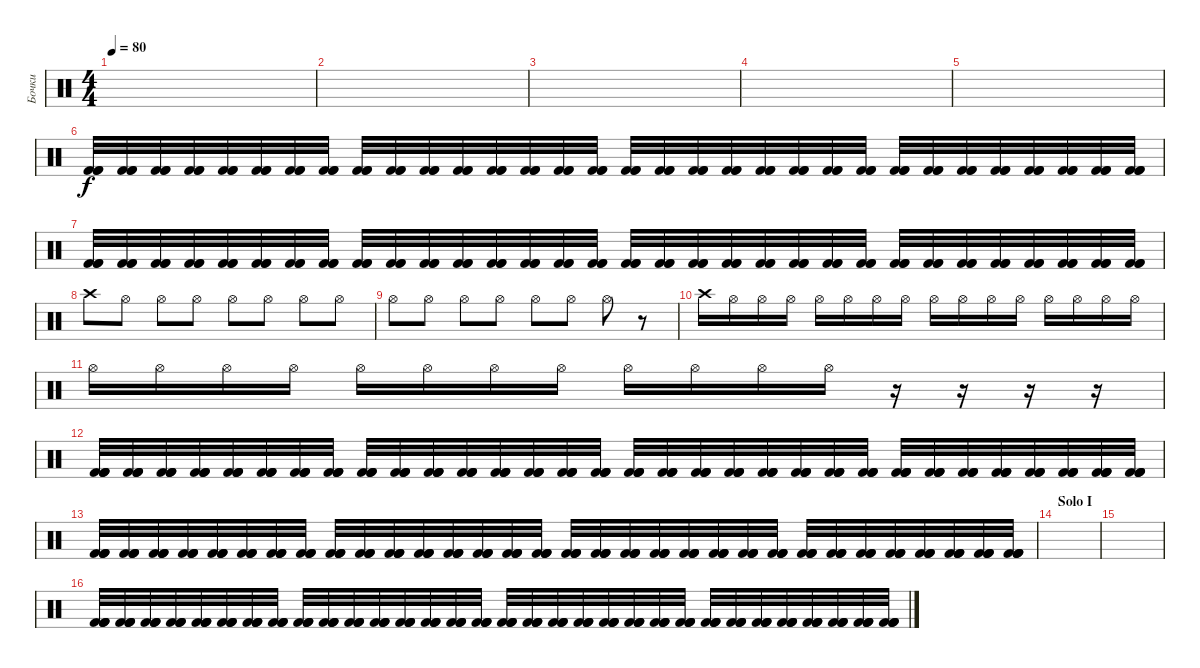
\track ("Бочки" "Бочки") {instrument percussion}
\staff {score}
\articulation defaults
\ts (4 4)
\tempo 80
\clef neutral
\ks c
|
|
|
|
|
("Kick (hit) 2" "Kick (hit) 2" "Kick (hit) 2").32 ("Kick (hit) 2" "Kick (hit) 2" "Kick (hit) 2").32 ("Kick (hit) 2" "Kick (hit) 2" "Kick (hit) 2").32 ("Kick (hit) 2" "Kick (hit) 2" "Kick (hit) 2").32 ("Kick (hit) 2" "Kick (hit) 2" "Kick (hit) 2").32 ("Kick (hit) 2" "Kick (hit) 2" "Kick (hit) 2").32 ("Kick (hit) 2" "Kick (hit) 2" "Kick (hit) 2").32 ("Kick (hit) 2" "Kick (hit) 2" "Kick (hit) 2").32 ("Kick (hit) 2" "Kick (hit) 2" "Kick (hit) 2").32 ("Kick (hit) 2" "Kick (hit) 2" "Kick (hit) 2").32 ("Kick (hit) 2" "Kick (hit) 2" "Kick (hit) 2").32 ("Kick (hit) 2" "Kick (hit) 2" "Kick (hit) 2").32 ("Kick (hit) 2" "Kick (hit) 2" "Kick (hit) 2").32 ("Kick (hit) 2" "Kick (hit) 2" "Kick (hit) 2").32 ("Kick (hit) 2" "Kick (hit) 2" "Kick (hit) 2").32 ("Kick (hit) 2" "Kick (hit) 2" "Kick (hit) 2").32 ("Kick (hit) 2" "Kick (hit) 2" "Kick (hit) 2").32 ("Kick (hit) 2" "Kick (hit) 2" "Kick (hit) 2").32 ("Kick (hit) 2" "Kick (hit) 2" "Kick (hit) 2").32 ("Kick (hit) 2" "Kick (hit) 2" "Kick (hit) 2").32 ("Kick (hit) 2" "Kick (hit) 2" "Kick (hit) 2").32 ("Kick (hit) 2" "Kick (hit) 2" "Kick (hit) 2").32 ("Kick (hit) 2" "Kick (hit) 2" "Kick (hit) 2").32 ("Kick (hit) 2" "Kick (hit) 2" "Kick (hit) 2").32 ("Kick (hit) 2" "Kick (hit) 2" "Kick (hit) 2").32 ("Kick (hit) 2" "Kick (hit) 2" "Kick (hit) 2").32 ("Kick (hit) 2" "Kick (hit) 2" "Kick (hit) 2").32 ("Kick (hit) 2" "Kick (hit) 2" "Kick (hit) 2").32 ("Kick (hit) 2" "Kick (hit) 2" "Kick (hit) 2").32 ("Kick (hit) 2" "Kick (hit) 2" "Kick (hit) 2").32 ("Kick (hit) 2" "Kick (hit) 2" "Kick (hit) 2").32 ("Kick (hit) 2" "Kick (hit) 2" "Kick (hit) 2").32 |
("Kick (hit) 2" "Kick (hit) 2" "Kick (hit) 2").32 ("Kick (hit) 2" "Kick (hit) 2" "Kick (hit) 2").32 ("Kick (hit) 2" "Kick (hit) 2" "Kick (hit) 2").32 ("Kick (hit) 2" "Kick (hit) 2" "Kick (hit) 2").32 ("Kick (hit) 2" "Kick (hit) 2" "Kick (hit) 2").32 ("Kick (hit) 2" "Kick (hit) 2" "Kick (hit) 2").32 ("Kick (hit) 2" "Kick (hit) 2" "Kick (hit) 2").32 ("Kick (hit) 2" "Kick (hit) 2" "Kick (hit) 2").32 ("Kick (hit) 2" "Kick (hit) 2" "Kick (hit) 2").32 ("Kick (hit) 2" "Kick (hit) 2" "Kick (hit) 2").32 ("Kick (hit) 2" "Kick (hit) 2" "Kick (hit) 2").32 ("Kick (hit) 2" "Kick (hit) 2" "Kick (hit) 2").32 ("Kick (hit) 2" "Kick (hit) 2" "Kick (hit) 2").32 ("Kick (hit) 2" "Kick (hit) 2" "Kick (hit) 2").32 ("Kick (hit) 2" "Kick (hit) 2" "Kick (hit) 2").32 ("Kick (hit) 2" "Kick (hit) 2" "Kick (hit) 2").32 ("Kick (hit) 2" "Kick (hit) 2" "Kick (hit) 2").32 ("Kick (hit) 2" "Kick (hit) 2" "Kick (hit) 2").32 ("Kick (hit) 2" "Kick (hit) 2" "Kick (hit) 2").32 ("Kick (hit) 2" "Kick (hit) 2" "Kick (hit) 2").32 ("Kick (hit) 2" "Kick (hit) 2" "Kick (hit) 2").32 ("Kick (hit) 2" "Kick (hit) 2" "Kick (hit) 2").32 ("Kick (hit) 2" "Kick (hit) 2" "Kick (hit) 2").32 ("Kick (hit) 2" "Kick (hit) 2" "Kick (hit) 2").32 ("Kick (hit) 2" "Kick (hit) 2" "Kick (hit) 2").32 ("Kick (hit) 2" "Kick (hit) 2" "Kick (hit) 2").32 ("Kick (hit) 2" "Kick (hit) 2" "Kick (hit) 2").32 ("Kick (hit) 2" "Kick (hit) 2" "Kick (hit) 2").32 ("Kick (hit) 2" "Kick (hit) 2" "Kick (hit) 2").32 ("Kick (hit) 2" "Kick (hit) 2" "Kick (hit) 2").32 ("Kick (hit) 2" "Kick (hit) 2" "Kick (hit) 2").32 ("Kick (hit) 2" "Kick (hit) 2" "Kick (hit) 2").32 |
"Crash high (hit)".8 "Hi-Hat (open)".8 "Hi-Hat (open)".8 "Hi-Hat (open)".8 "Hi-Hat (open)".8 "Hi-Hat (open)".8 "Hi-Hat (open)".8 "Hi-Hat (open)".8 |
"Hi-Hat (open)".8 "Hi-Hat (open)".8 "Hi-Hat (open)".8 "Hi-Hat (open)".8 "Hi-Hat (open)".8 "Hi-Hat (open)".8 "Hi-Hat (open)".8 r.8 |
"Crash high (hit)".16 "Hi-Hat (open)".16 "Hi-Hat (open)".16 "Hi-Hat (open)".16 "Hi-Hat (open)".16 "Hi-Hat (open)".16 "Hi-Hat (open)".16 "Hi-Hat (open)".16 "Hi-Hat (open)".16 "Hi-Hat (open)".16 "Hi-Hat (open)".16 "Hi-Hat (open)".16 "Hi-Hat (open)".16 "Hi-Hat (open)".16 "Hi-Hat (open)".16 "Hi-Hat (open)".16 |
"Hi-Hat (open)".16 "Hi-Hat (open)".16 "Hi-Hat (open)".16 "Hi-Hat (open)".16 "Hi-Hat (open)".16 "Hi-Hat (open)".16 "Hi-Hat (open)".16 "Hi-Hat (open)".16 "Hi-Hat (open)".16 "Hi-Hat (open)".16 "Hi-Hat (open)".16 "Hi-Hat (open)".16 r.16 r.16 r.16 r.16 |
("Kick (hit) 2" "Kick (hit) 2" "Kick (hit) 2" "Kick (hit) 2").32 ("Kick (hit) 2" "Kick (hit) 2" "Kick (hit) 2" "Kick (hit) 2").32 ("Kick (hit) 2" "Kick (hit) 2" "Kick (hit) 2" "Kick (hit) 2").32 ("Kick (hit) 2" "Kick (hit) 2" "Kick (hit) 2" "Kick (hit) 2").32 ("Kick (hit) 2" "Kick (hit) 2" "Kick (hit) 2" "Kick (hit) 2").32 ("Kick (hit) 2" "Kick (hit) 2" "Kick (hit) 2" "Kick (hit) 2").32 ("Kick (hit) 2" "Kick (hit) 2" "Kick (hit) 2" "Kick (hit) 2").32 ("Kick (hit) 2" "Kick (hit) 2" "Kick (hit) 2" "Kick (hit) 2").32 ("Kick (hit) 2" "Kick (hit) 2" "Kick (hit) 2" "Kick (hit) 2").32 ("Kick (hit) 2" "Kick (hit) 2" "Kick (hit) 2" "Kick (hit) 2").32 ("Kick (hit) 2" "Kick (hit) 2" "Kick (hit) 2" "Kick (hit) 2").32 ("Kick (hit) 2" "Kick (hit) 2" "Kick (hit) 2" "Kick (hit) 2").32 ("Kick (hit) 2" "Kick (hit) 2" "Kick (hit) 2" "Kick (hit) 2").32 ("Kick (hit) 2" "Kick (hit) 2" "Kick (hit) 2" "Kick (hit) 2").32 ("Kick (hit) 2" "Kick (hit) 2" "Kick (hit) 2" "Kick (hit) 2").32 ("Kick (hit) 2" "Kick (hit) 2" "Kick (hit) 2" "Kick (hit) 2").32 ("Kick (hit) 2" "Kick (hit) 2" "Kick (hit) 2" "Kick (hit) 2").32 ("Kick (hit) 2" "Kick (hit) 2" "Kick (hit) 2" "Kick (hit) 2").32 ("Kick (hit) 2" "Kick (hit) 2" "Kick (hit) 2" "Kick (hit) 2").32 ("Kick (hit) 2" "Kick (hit) 2" "Kick (hit) 2" "Kick (hit) 2").32 ("Kick (hit) 2" "Kick (hit) 2" "Kick (hit) 2" "Kick (hit) 2").32 ("Kick (hit) 2" "Kick (hit) 2" "Kick (hit) 2" "Kick (hit) 2").32 ("Kick (hit) 2" "Kick (hit) 2" "Kick (hit) 2" "Kick (hit) 2").32 ("Kick (hit) 2" "Kick (hit) 2" "Kick (hit) 2" "Kick (hit) 2").32 ("Kick (hit) 2" "Kick (hit) 2" "Kick (hit) 2" "Kick (hit) 2").32 ("Kick (hit) 2" "Kick (hit) 2" "Kick (hit) 2" "Kick (hit) 2").32 ("Kick (hit) 2" "Kick (hit) 2" "Kick (hit) 2" "Kick (hit) 2").32 ("Kick (hit) 2" "Kick (hit) 2" "Kick (hit) 2" "Kick (hit) 2").32 ("Kick (hit) 2" "Kick (hit) 2" "Kick (hit) 2" "Kick (hit) 2").32 ("Kick (hit) 2" "Kick (hit) 2" "Kick (hit) 2" "Kick (hit) 2").32 ("Kick (hit) 2" "Kick (hit) 2" "Kick (hit) 2" "Kick (hit) 2").32 ("Kick (hit) 2" "Kick (hit) 2" "Kick (hit) 2" "Kick (hit) 2").32 |
("Kick (hit) 2" "Kick (hit) 2" "Kick (hit) 2" "Kick (hit) 2").32 ("Kick (hit) 2" "Kick (hit) 2" "Kick (hit) 2" "Kick (hit) 2").32 ("Kick (hit) 2" "Kick (hit) 2" "Kick (hit) 2" "Kick (hit) 2").32 ("Kick (hit) 2" "Kick (hit) 2" "Kick (hit) 2" "Kick (hit) 2").32 ("Kick (hit) 2" "Kick (hit) 2" "Kick (hit) 2" "Kick (hit) 2").32 ("Kick (hit) 2" "Kick (hit) 2" "Kick (hit) 2" "Kick (hit) 2").32 ("Kick (hit) 2" "Kick (hit) 2" "Kick (hit) 2" "Kick (hit) 2").32 ("Kick (hit) 2" "Kick (hit) 2" "Kick (hit) 2" "Kick (hit) 2").32 ("Kick (hit) 2" "Kick (hit) 2" "Kick (hit) 2" "Kick (hit) 2").32 ("Kick (hit) 2" "Kick (hit) 2" "Kick (hit) 2" "Kick (hit) 2").32 ("Kick (hit) 2" "Kick (hit) 2" "Kick (hit) 2" "Kick (hit) 2").32 ("Kick (hit) 2" "Kick (hit) 2" "Kick (hit) 2" "Kick (hit) 2").32 ("Kick (hit) 2" "Kick (hit) 2" "Kick (hit) 2" "Kick (hit) 2").32 ("Kick (hit) 2" "Kick (hit) 2" "Kick (hit) 2" "Kick (hit) 2").32 ("Kick (hit) 2" "Kick (hit) 2" "Kick (hit) 2" "Kick (hit) 2").32 ("Kick (hit) 2" "Kick (hit) 2" "Kick (hit) 2" "Kick (hit) 2").32 ("Kick (hit) 2" "Kick (hit) 2" "Kick (hit) 2" "Kick (hit) 2").32 ("Kick (hit) 2" "Kick (hit) 2" "Kick (hit) 2" "Kick (hit) 2").32 ("Kick (hit) 2" "Kick (hit) 2" "Kick (hit) 2" "Kick (hit) 2").32 ("Kick (hit) 2" "Kick (hit) 2" "Kick (hit) 2" "Kick (hit) 2").32 ("Kick (hit) 2" "Kick (hit) 2" "Kick (hit) 2" "Kick (hit) 2").32 ("Kick (hit) 2" "Kick (hit) 2" "Kick (hit) 2" "Kick (hit) 2").32 ("Kick (hit) 2" "Kick (hit) 2" "Kick (hit) 2" "Kick (hit) 2").32 ("Kick (hit) 2" "Kick (hit) 2" "Kick (hit) 2" "Kick (hit) 2").32 ("Kick (hit) 2" "Kick (hit) 2" "Kick (hit) 2" "Kick (hit) 2").32 ("Kick (hit) 2" "Kick (hit) 2" "Kick (hit) 2" "Kick (hit) 2").32 ("Kick (hit) 2" "Kick (hit) 2" "Kick (hit) 2" "Kick (hit) 2").32 ("Kick (hit) 2" "Kick (hit) 2" "Kick (hit) 2" "Kick (hit) 2").32 ("Kick (hit) 2" "Kick (hit) 2" "Kick (hit) 2" "Kick (hit) 2").32 ("Kick (hit) 2" "Kick (hit) 2" "Kick (hit) 2" "Kick (hit) 2").32 ("Kick (hit) 2" "Kick (hit) 2" "Kick (hit) 2" "Kick (hit) 2").32 ("Kick (hit) 2" "Kick (hit) 2" "Kick (hit) 2" "Kick (hit) 2").32 |
\section ("" "Solo I")
|
|
("Kick (hit) 2" "Kick (hit) 2" "Kick (hit) 2" "Kick (hit) 2").32 ("Kick (hit) 2" "Kick (hit) 2" "Kick (hit) 2" "Kick (hit) 2").32 ("Kick (hit) 2" "Kick (hit) 2" "Kick (hit) 2" "Kick (hit) 2").32 ("Kick (hit) 2" "Kick (hit) 2" "Kick (hit) 2" "Kick (hit) 2").32 ("Kick (hit) 2" "Kick (hit) 2" "Kick (hit) 2" "Kick (hit) 2").32 ("Kick (hit) 2" "Kick (hit) 2" "Kick (hit) 2" "Kick (hit) 2").32 ("Kick (hit) 2" "Kick (hit) 2" "Kick (hit) 2" "Kick (hit) 2").32 ("Kick (hit) 2" "Kick (hit) 2" "Kick (hit) 2" "Kick (hit) 2").32 ("Kick (hit) 2" "Kick (hit) 2" "Kick (hit) 2" "Kick (hit) 2").32 ("Kick (hit) 2" "Kick (hit) 2" "Kick (hit) 2" "Kick (hit) 2").32 ("Kick (hit) 2" "Kick (hit) 2" "Kick (hit) 2" "Kick (hit) 2").32 ("Kick (hit) 2" "Kick (hit) 2" "Kick (hit) 2" "Kick (hit) 2").32 ("Kick (hit) 2" "Kick (hit) 2" "Kick (hit) 2" "Kick (hit) 2").32 ("Kick (hit) 2" "Kick (hit) 2" "Kick (hit) 2" "Kick (hit) 2").32 ("Kick (hit) 2" "Kick (hit) 2" "Kick (hit) 2" "Kick (hit) 2").32 ("Kick (hit) 2" "Kick (hit) 2" "Kick (hit) 2" "Kick (hit) 2").32 ("Kick (hit) 2" "Kick (hit) 2" "Kick (hit) 2" "Kick (hit) 2").32 ("Kick (hit) 2" "Kick (hit) 2" "Kick (hit) 2" "Kick (hit) 2").32 ("Kick (hit) 2" "Kick (hit) 2" "Kick (hit) 2" "Kick (hit) 2").32 ("Kick (hit) 2" "Kick (hit) 2" "Kick (hit) 2" "Kick (hit) 2").32 ("Kick (hit) 2" "Kick (hit) 2" "Kick (hit) 2" "Kick (hit) 2").32 ("Kick (hit) 2" "Kick (hit) 2" "Kick (hit) 2" "Kick (hit) 2").32 ("Kick (hit) 2" "Kick (hit) 2" "Kick (hit) 2" "Kick (hit) 2").32 ("Kick (hit) 2" "Kick (hit) 2" "Kick (hit) 2" "Kick (hit) 2").32 ("Kick (hit) 2" "Kick (hit) 2" "Kick (hit) 2" "Kick (hit) 2").32 ("Kick (hit) 2" "Kick (hit) 2" "Kick (hit) 2" "Kick (hit) 2").32 ("Kick (hit) 2" "Kick (hit) 2" "Kick (hit) 2" "Kick (hit) 2").32 ("Kick (hit) 2" "Kick (hit) 2" "Kick (hit) 2" "Kick (hit) 2").32 ("Kick (hit) 2" "Kick (hit) 2" "Kick (hit) 2" "Kick (hit) 2").32 ("Kick (hit) 2" "Kick (hit) 2" "Kick (hit) 2" "Kick (hit) 2").32 ("Kick (hit) 2" "Kick (hit) 2" "Kick (hit) 2" "Kick (hit) 2").32 ("Kick (hit) 2" "Kick (hit) 2" "Kick (hit) 2" "Kick (hit) 2").32
